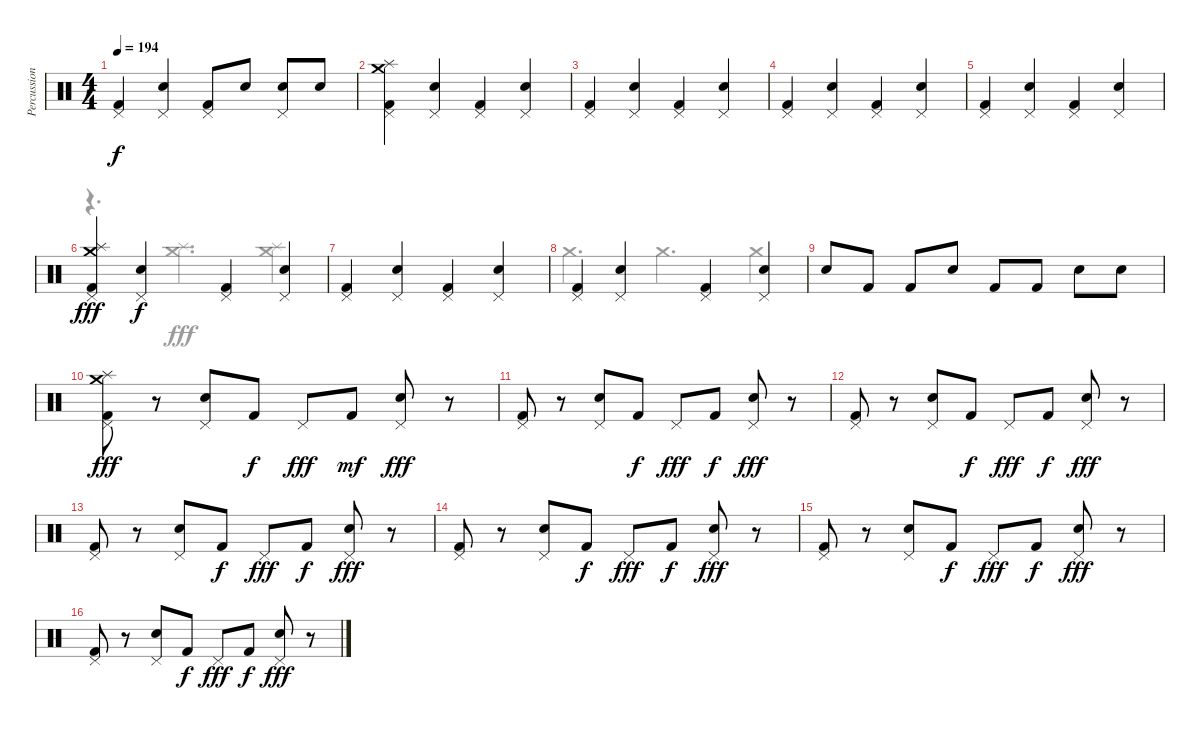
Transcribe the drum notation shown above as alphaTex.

\track ("Percussion" "Percussion") {instrument percussion}
\staff {score}
\articulation defaults
\voice
\ts (4 4)
\tempo 194
\clef neutral
\ks c
("Kick (hit) 2" "Pedal Hi-Hat (hit)").4{dy f} ("Electric Snare (hit)" "Pedal Hi-Hat (hit)").4 ("Kick (hit) 2" "Pedal Hi-Hat (hit)").8 "Electric Snare (hit)".8 ("Electric Snare (hit)" "Pedal Hi-Hat (hit)").8 "Electric Snare (hit)".8 |
("Kick (hit) 2" "Splash (hit)" "Pedal Hi-Hat (hit)" "Crash medium (hit)").4 ("Electric Snare (hit)" "Pedal Hi-Hat (hit)").4 ("Kick (hit) 2" "Pedal Hi-Hat (hit)").4 ("Electric Snare (hit)" "Pedal Hi-Hat (hit)").4 |
("Kick (hit) 2" "Pedal Hi-Hat (hit)").4 ("Electric Snare (hit)" "Pedal Hi-Hat (hit)").4 ("Kick (hit) 2" "Pedal Hi-Hat (hit)").4 ("Electric Snare (hit)" "Pedal Hi-Hat (hit)").4 |
("Kick (hit) 2" "Pedal Hi-Hat (hit)").4 ("Electric Snare (hit)" "Pedal Hi-Hat (hit)").4 ("Kick (hit) 2" "Pedal Hi-Hat (hit)").4 ("Electric Snare (hit)" "Pedal Hi-Hat (hit)").4 |
("Kick (hit) 2" "Pedal Hi-Hat (hit)").4 ("Electric Snare (hit)" "Pedal Hi-Hat (hit)").4 ("Kick (hit) 2" "Pedal Hi-Hat (hit)").4 ("Electric Snare (hit)" "Pedal Hi-Hat (hit)").4 |
("Kick (hit) 2" "Splash (hit)" "Pedal Hi-Hat (hit)" "Crash medium (hit)").4{dy fff} ("Electric Snare (hit)" "Pedal Hi-Hat (hit)").4{dy f} ("Kick (hit) 2" "Pedal Hi-Hat (hit)").4 ("Electric Snare (hit)" "Pedal Hi-Hat (hit)").4 |
("Kick (hit) 2" "Pedal Hi-Hat (hit)").4 ("Electric Snare (hit)" "Pedal Hi-Hat (hit)").4 ("Kick (hit) 2" "Pedal Hi-Hat (hit)").4 ("Electric Snare (hit)" "Pedal Hi-Hat (hit)").4 |
("Kick (hit) 2" "Pedal Hi-Hat (hit)").4 ("Electric Snare (hit)" "Pedal Hi-Hat (hit)").4 ("Kick (hit) 2" "Pedal Hi-Hat (hit)").4 ("Electric Snare (hit)" "Pedal Hi-Hat (hit)").4 |
"Electric Snare (hit)".8 "Kick (hit) 2".8 "Kick (hit) 2".8 "Electric Snare (hit)".8 "Kick (hit) 2".8 "Kick (hit) 2".8 "Electric Snare (hit)".8 "Electric Snare (hit)".8 |
("Kick (hit) 2" "Splash (hit)" "Pedal Hi-Hat (hit)" "Crash medium (hit)").8{dy fff} r.8 ("Electric Snare (hit)" "Pedal Hi-Hat (hit)").8 "Kick (hit) 2".8{dy f} "Pedal Hi-Hat (hit)".8{dy fff} "Kick (hit) 2".8{dy mf} ("Electric Snare (hit)" "Pedal Hi-Hat (hit)").8{dy fff} r.8 |
("Kick (hit) 2" "Pedal Hi-Hat (hit)").8 r.8 ("Electric Snare (hit)" "Pedal Hi-Hat (hit)").8 "Kick (hit) 2".8{dy f} "Pedal Hi-Hat (hit)".8{dy fff} "Kick (hit) 2".8{dy f} ("Electric Snare (hit)" "Pedal Hi-Hat (hit)").8{dy fff} r.8 |
("Kick (hit) 2" "Pedal Hi-Hat (hit)").8 r.8 ("Electric Snare (hit)" "Pedal Hi-Hat (hit)").8 "Kick (hit) 2".8{dy f} "Pedal Hi-Hat (hit)".8{dy fff} "Kick (hit) 2".8{dy f} ("Electric Snare (hit)" "Pedal Hi-Hat (hit)").8{dy fff} r.8 |
("Kick (hit) 2" "Pedal Hi-Hat (hit)").8 r.8 ("Electric Snare (hit)" "Pedal Hi-Hat (hit)").8 "Kick (hit) 2".8{dy f} "Pedal Hi-Hat (hit)".8{dy fff} "Kick (hit) 2".8{dy f} ("Electric Snare (hit)" "Pedal Hi-Hat (hit)").8{dy fff} r.8 |
("Kick (hit) 2" "Pedal Hi-Hat (hit)").8 r.8 ("Electric Snare (hit)" "Pedal Hi-Hat (hit)").8 "Kick (hit) 2".8{dy f} "Pedal Hi-Hat (hit)".8{dy fff} "Kick (hit) 2".8{dy f} ("Electric Snare (hit)" "Pedal Hi-Hat (hit)").8{dy fff} r.8 |
("Kick (hit) 2" "Pedal Hi-Hat (hit)").8 r.8 ("Electric Snare (hit)" "Pedal Hi-Hat (hit)").8 "Kick (hit) 2".8{dy f} "Pedal Hi-Hat (hit)".8{dy fff} "Kick (hit) 2".8{dy f} ("Electric Snare (hit)" "Pedal Hi-Hat (hit)").8{dy fff} r.8 |
("Kick (hit) 2" "Pedal Hi-Hat (hit)").8 r.8 ("Electric Snare (hit)" "Pedal Hi-Hat (hit)").8 "Kick (hit) 2".8{dy f} "Pedal Hi-Hat (hit)".8{dy fff} "Kick (hit) 2".8{dy f} ("Electric Snare (hit)" "Pedal Hi-Hat (hit)").8{dy fff} r.8
\voice
\clef neutral
\ottava regular
\simile none
\ks c
|
|
|
|
|
r.4{d} ("Crash medium (hit)" "Splash (hit)").4{d} ("Crash medium (hit)" "Splash (hit)").4 |
|
"Crash medium (hit)".4{d} "Crash medium (hit)".4{d} "Crash medium (hit)".4 |
|
|
|
|
|
|
|
